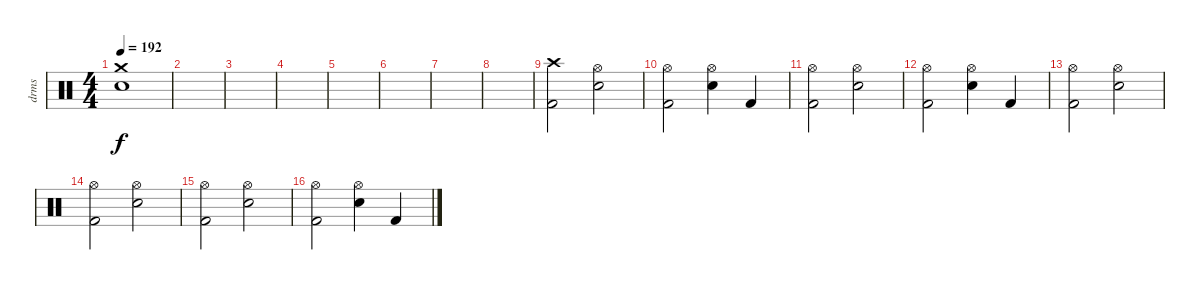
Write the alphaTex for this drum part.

\track ("drms" "drms") {instrument percussion}
\staff {score}
\articulation defaults
\ts (4 4)
\tempo 192
\clef neutral
\ks c
("Crash medium (hit)" "Snare (hit) 2").1{dy f} |
|
|
|
|
|
|
|
("Crash high (hit)" "Kick (hit) 2").2 ("Hi-Hat (open)" "Snare (hit) 2").2 |
("Hi-Hat (open)" "Kick (hit) 2").2 ("Hi-Hat (open)" "Snare (hit) 2").4 "Kick (hit) 2".4 |
("Hi-Hat (open)" "Kick (hit) 2").2 ("Hi-Hat (open)" "Snare (hit) 2").2 |
("Hi-Hat (open)" "Kick (hit) 2").2 ("Hi-Hat (open)" "Snare (hit) 2").4 "Kick (hit) 2".4 |
("Hi-Hat (open)" "Kick (hit) 2").2 ("Hi-Hat (open)" "Snare (hit) 2").2 |
("Hi-Hat (open)" "Kick (hit) 2").2 ("Hi-Hat (open)" "Snare (hit) 2").2 |
("Hi-Hat (open)" "Kick (hit) 2").2 ("Hi-Hat (open)" "Snare (hit) 2").2 |
("Hi-Hat (open)" "Kick (hit) 2").2 ("Hi-Hat (open)" "Snare (hit) 2").4 "Kick (hit) 2".4
